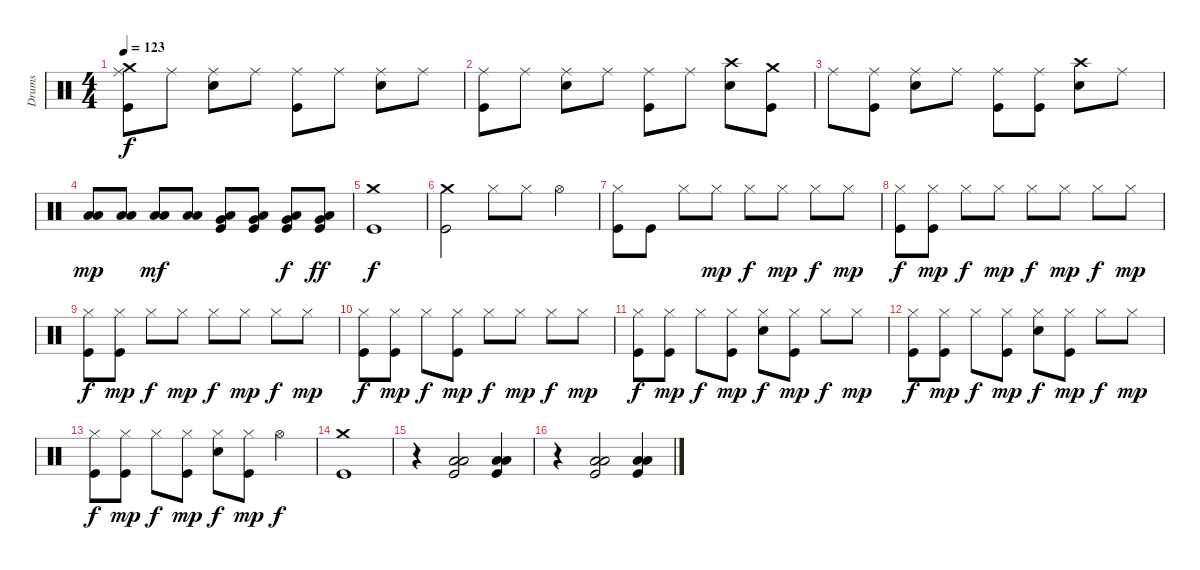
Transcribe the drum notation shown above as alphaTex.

\track ("Drums" "Drums") {instrument percussion}
\staff {score}
\articulation defaults
\ts (4 4)
\tempo 123
\clef neutral
\ks c
("Crash medium (hit)" "Ride (middle)" "Kick (hit)").8{dy f} "Ride (middle)".8 ("Ride (middle)" "Snare (hit) 2").8 "Ride (middle)".8 ("Ride (middle)" "Kick (hit)").8 "Ride (middle)".8 ("Ride (middle)" "Snare (hit) 2").8 "Ride (middle)".8 |
("Ride (middle)" "Kick (hit)").8 "Ride (middle)".8 ("Ride (middle)" "Snare (hit) 2").8 "Ride (middle)".8 ("Ride (middle)" "Kick (hit)").8 "Ride (middle)".8 ("Crash high (hit)" "Snare (hit) 2").8 ("Crash medium (hit)" "Kick (hit)").8 |
"Ride (middle)".8 ("Ride (middle)" "Kick (hit)").8 ("Ride (middle)" "Snare (hit) 2").8 "Ride (middle)".8 ("Ride (middle)" "Kick (hit)").8 ("Ride (middle)" "Kick (hit)").8 ("Crash high (hit)" "Snare (hit) 2").8 "Ride (middle)".8 |
("Low Tom (hit)" "Low Floor Tom (hit)").8{dy mp} ("Low Tom (hit)" "Low Floor Tom (hit)").8 ("Low Tom (hit)" "Low Floor Tom (hit)").8{dy mf} ("Low Tom (hit)" "Low Floor Tom (hit)").8 ("Very Low Tom (hit)" "Low Floor Tom (hit)" "Kick (hit)").8 ("Very Low Tom (hit)" "Low Floor Tom (hit)" "Kick (hit)").8 ("Very Low Tom (hit)" "Low Floor Tom (hit)" "Kick (hit)").8{dy f} ("Very Low Tom (hit)" "Low Floor Tom (hit)" "Kick (hit)").8{dy ff} |
("Crash medium (hit)" "Kick (hit)").1{dy f} |
("Crash medium (hit)" "Kick (hit)").2 "Hi-Hat (closed)".8 "Hi-Hat (closed)".8 "Hi-Hat (open)".4 |
("Hi-Hat (closed)" "Kick (hit)").8 "Kick (hit)".8 "Hi-Hat (closed)".8 "Hi-Hat (closed)".8{dy mp} "Hi-Hat (closed)".8{dy f} "Hi-Hat (closed)".8{dy mp} "Hi-Hat (closed)".8{dy f} "Hi-Hat (closed)".8{dy mp} |
("Hi-Hat (closed)" "Kick (hit)").8{dy f} ("Hi-Hat (closed)" "Kick (hit)").8{dy mp} "Hi-Hat (closed)".8{dy f} "Hi-Hat (closed)".8{dy mp} "Hi-Hat (closed)".8{dy f} "Hi-Hat (closed)".8{dy mp} "Hi-Hat (closed)".8{dy f} "Hi-Hat (closed)".8{dy mp} |
("Hi-Hat (closed)" "Kick (hit)").8{dy f} ("Hi-Hat (closed)" "Kick (hit)").8{dy mp} "Hi-Hat (closed)".8{dy f} "Hi-Hat (closed)".8{dy mp} "Hi-Hat (closed)".8{dy f} "Hi-Hat (closed)".8{dy mp} "Hi-Hat (closed)".8{dy f} "Hi-Hat (closed)".8{dy mp} |
("Hi-Hat (closed)" "Kick (hit)").8{dy f} ("Hi-Hat (closed)" "Kick (hit)").8{dy mp} "Hi-Hat (closed)".8{dy f} ("Hi-Hat (closed)" "Kick (hit)").8{dy mp} "Hi-Hat (closed)".8{dy f} "Hi-Hat (closed)".8{dy mp} "Hi-Hat (closed)".8{dy f} "Hi-Hat (closed)".8{dy mp} |
("Hi-Hat (closed)" "Kick (hit)").8{dy f} ("Hi-Hat (closed)" "Kick (hit)").8{dy mp} "Hi-Hat (closed)".8{dy f} ("Hi-Hat (closed)" "Kick (hit)").8{dy mp} ("Hi-Hat (closed)" "Snare (hit) 2").8{dy f} ("Hi-Hat (closed)" "Kick (hit)").8{dy mp} "Hi-Hat (closed)".8{dy f} "Hi-Hat (closed)".8{dy mp} |
("Hi-Hat (closed)" "Kick (hit)").8{dy f} ("Hi-Hat (closed)" "Kick (hit)").8{dy mp} "Hi-Hat (closed)".8{dy f} ("Hi-Hat (closed)" "Kick (hit)").8{dy mp} ("Hi-Hat (closed)" "Snare (hit) 2").8{dy f} ("Hi-Hat (closed)" "Kick (hit)").8{dy mp} "Hi-Hat (closed)".8{dy f} "Hi-Hat (closed)".8{dy mp} |
("Hi-Hat (closed)" "Kick (hit)").8{dy f} ("Hi-Hat (closed)" "Kick (hit)").8{dy mp} "Hi-Hat (closed)".8{dy f} ("Hi-Hat (closed)" "Kick (hit)").8{dy mp} ("Hi-Hat (closed)" "Snare (hit) 2").8{dy f} ("Hi-Hat (closed)" "Kick (hit)").8{dy mp} "Hi-Hat (open)".4{dy f} |
("Crash medium (hit)" "Kick (hit)").1 |
r.4 ("Low Tom (hit)" "Low Floor Tom (hit)" "Kick (hit)").2 ("Low Tom (hit)" "Low Floor Tom (hit)" "Kick (hit)").4 |
r.4 ("Low Tom (hit)" "Low Floor Tom (hit)" "Kick (hit)").2 ("Low Tom (hit)" "Low Floor Tom (hit)" "Kick (hit)").4
